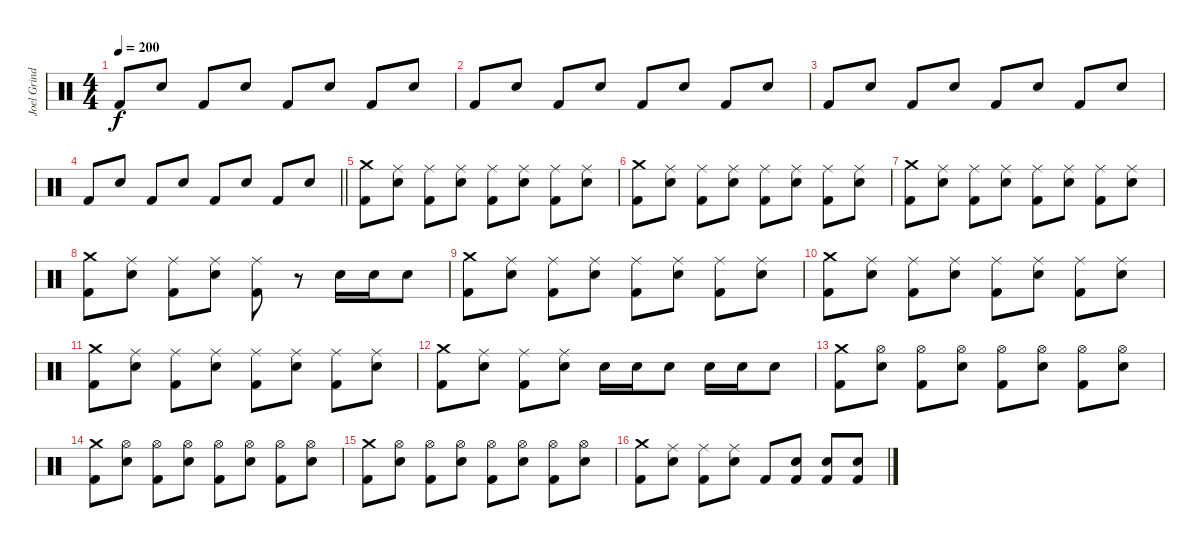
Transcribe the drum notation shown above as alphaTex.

\track ("Joel Grind (drums)" "Joel Grind") {instrument percussion}
\staff {score}
\articulation defaults
\ts (4 4)
\tempo 200
\clef neutral
\ks c "Kick (hit) 2".8{dy f} "Snare (hit) 2".8 "Kick (hit) 2".8 "Snare (hit) 2".8 "Kick (hit) 2".8 "Snare (hit) 2".8 "Kick (hit) 2".8 "Snare (hit) 2".8
|
"Kick (hit) 2".8 "Snare (hit) 2".8 "Kick (hit) 2".8 "Snare (hit) 2".8 "Kick (hit) 2".8 "Snare (hit) 2".8 "Kick (hit) 2".8 "Snare (hit) 2".8 |
"Kick (hit) 2".8 "Snare (hit) 2".8 "Kick (hit) 2".8 "Snare (hit) 2".8 "Kick (hit) 2".8 "Snare (hit) 2".8 "Kick (hit) 2".8 "Snare (hit) 2".8 |
\barLineRight lightlight "Kick (hit) 2".8 "Snare (hit) 2".8 "Kick (hit) 2".8 "Snare (hit) 2".8 "Kick (hit) 2".8 "Snare (hit) 2".8 "Kick (hit) 2".8 "Snare (hit) 2".8
|
("Crash medium (hit)" "Kick (hit) 2").8 ("Ride (middle)" "Snare (hit) 2").8 ("Ride (middle)" "Kick (hit) 2").8 ("Ride (middle)" "Snare (hit) 2").8 ("Ride (middle)" "Kick (hit) 2").8 ("Ride (middle)" "Snare (hit) 2").8 ("Ride (middle)" "Kick (hit) 2").8 ("Ride (middle)" "Snare (hit) 2").8 |
("Crash medium (hit)" "Kick (hit) 2").8 ("Ride (middle)" "Snare (hit) 2").8 ("Ride (middle)" "Kick (hit) 2").8 ("Ride (middle)" "Snare (hit) 2").8 ("Ride (middle)" "Kick (hit) 2").8 ("Ride (middle)" "Snare (hit) 2").8 ("Ride (middle)" "Kick (hit) 2").8 ("Ride (middle)" "Snare (hit) 2").8 |
("Crash medium (hit)" "Kick (hit) 2").8 ("Ride (middle)" "Snare (hit) 2").8 ("Ride (middle)" "Kick (hit) 2").8 ("Ride (middle)" "Snare (hit) 2").8 ("Ride (middle)" "Kick (hit) 2").8 ("Ride (middle)" "Snare (hit) 2").8 ("Ride (middle)" "Kick (hit) 2").8 ("Ride (middle)" "Snare (hit) 2").8 |
("Crash medium (hit)" "Kick (hit) 2").8 ("Ride (middle)" "Snare (hit) 2").8 ("Ride (middle)" "Kick (hit) 2").8 ("Ride (middle)" "Snare (hit) 2").8 ("Ride (middle)" "Kick (hit) 2").8 r.8 "Snare (hit) 2".16 "Snare (hit) 2".16 "Snare (hit) 2".8 |
("Crash medium (hit)" "Kick (hit) 2").8 ("Ride (middle)" "Snare (hit) 2").8 ("Ride (middle)" "Kick (hit) 2").8 ("Ride (middle)" "Snare (hit) 2").8 ("Ride (middle)" "Kick (hit) 2").8 ("Ride (middle)" "Snare (hit) 2").8 ("Ride (middle)" "Kick (hit) 2").8 ("Ride (middle)" "Snare (hit) 2").8 |
("Crash medium (hit)" "Kick (hit) 2").8 ("Ride (middle)" "Snare (hit) 2").8 ("Ride (middle)" "Kick (hit) 2").8 ("Ride (middle)" "Snare (hit) 2").8 ("Ride (middle)" "Kick (hit) 2").8 ("Ride (middle)" "Snare (hit) 2").8 ("Ride (middle)" "Kick (hit) 2").8 ("Ride (middle)" "Snare (hit) 2").8 |
("Crash medium (hit)" "Kick (hit) 2").8 ("Ride (middle)" "Snare (hit) 2").8 ("Ride (middle)" "Kick (hit) 2").8 ("Ride (middle)" "Snare (hit) 2").8 ("Ride (middle)" "Kick (hit) 2").8 ("Ride (middle)" "Snare (hit) 2").8 ("Ride (middle)" "Kick (hit) 2").8 ("Ride (middle)" "Snare (hit) 2").8 |
("Crash medium (hit)" "Kick (hit) 2").8 ("Ride (middle)" "Snare (hit) 2").8 ("Ride (middle)" "Kick (hit) 2").8 ("Ride (middle)" "Snare (hit) 2").8 "Snare (hit) 2".16 "Snare (hit) 2".16 "Snare (hit) 2".8 "Snare (hit) 2".16 "Snare (hit) 2".16 "Snare (hit) 2".8 |
("Crash medium (hit)" "Kick (hit) 2").8 ("Hi-Hat (open)" "Snare (hit) 2").8 ("Hi-Hat (open)" "Kick (hit) 2").8 ("Hi-Hat (open)" "Snare (hit) 2").8 ("Hi-Hat (open)" "Kick (hit) 2").8 ("Hi-Hat (open)" "Snare (hit) 2").8 ("Hi-Hat (open)" "Kick (hit) 2").8 ("Hi-Hat (open)" "Snare (hit) 2").8 |
("Crash medium (hit)" "Kick (hit) 2").8 ("Hi-Hat (open)" "Snare (hit) 2").8 ("Hi-Hat (open)" "Kick (hit) 2").8 ("Hi-Hat (open)" "Snare (hit) 2").8 ("Hi-Hat (open)" "Kick (hit) 2").8 ("Hi-Hat (open)" "Snare (hit) 2").8 ("Hi-Hat (open)" "Kick (hit) 2").8 ("Hi-Hat (open)" "Snare (hit) 2").8 |
("Crash medium (hit)" "Kick (hit) 2").8 ("Hi-Hat (open)" "Snare (hit) 2").8 ("Hi-Hat (open)" "Kick (hit) 2").8 ("Hi-Hat (open)" "Snare (hit) 2").8 ("Hi-Hat (open)" "Kick (hit) 2").8 ("Hi-Hat (open)" "Snare (hit) 2").8 ("Hi-Hat (open)" "Kick (hit) 2").8 ("Hi-Hat (open)" "Snare (hit) 2").8 |
("Crash medium (hit)" "Kick (hit) 2").8 ("Ride (middle)" "Snare (hit) 2").8 ("Ride (middle)" "Kick (hit) 2").8 ("Ride (middle)" "Snare (hit) 2").8 "Kick (hit) 2".8 ("Snare (hit) 2" "Kick (hit) 2").8 ("Snare (hit) 2" "Kick (hit) 2").8 ("Snare (hit) 2" "Kick (hit) 2").8
